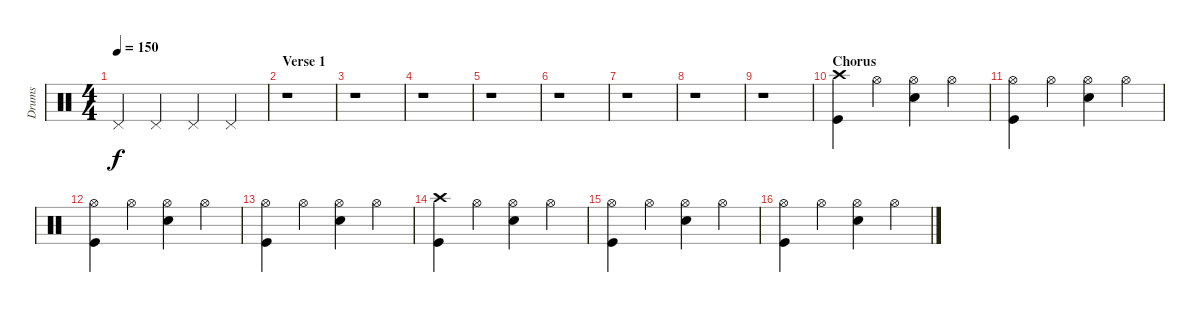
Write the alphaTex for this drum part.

\track ("Drums" "Drums") {instrument percussion}
\staff {score}
\articulation defaults
\ts (4 4)
\tempo 150
\clef neutral
\ks c "Pedal Hi-Hat (hit)".4{dy f} "Pedal Hi-Hat (hit)".4 "Pedal Hi-Hat (hit)".4 "Pedal Hi-Hat (hit)".4
|
\section ("" "Verse 1")
r.1 |
r.1 |
r.1 |
r.1 |
r.1 |
r.1 |
r.1 |
r.1 |
\section ("" "Chorus")
("Crash high (hit)" "Kick (hit)").4 "Hi-Hat (open)".4 ("Hi-Hat (open)" "Electric Snare (hit)").4 "Hi-Hat (open)".4 |
("Hi-Hat (open)" "Kick (hit)").4 "Hi-Hat (open)".4 ("Hi-Hat (open)" "Electric Snare (hit)").4 "Hi-Hat (open)".4 |
("Hi-Hat (open)" "Kick (hit)").4 "Hi-Hat (open)".4 ("Hi-Hat (open)" "Electric Snare (hit)").4 "Hi-Hat (open)".4 |
("Hi-Hat (open)" "Kick (hit)").4 "Hi-Hat (open)".4 ("Hi-Hat (open)" "Electric Snare (hit)").4 "Hi-Hat (open)".4 |
("Crash high (hit)" "Kick (hit)").4 "Hi-Hat (open)".4 ("Hi-Hat (open)" "Electric Snare (hit)").4 "Hi-Hat (open)".4 |
("Hi-Hat (open)" "Kick (hit)").4 "Hi-Hat (open)".4 ("Hi-Hat (open)" "Electric Snare (hit)").4 "Hi-Hat (open)".4 |
("Hi-Hat (open)" "Kick (hit)").4 "Hi-Hat (open)".4 ("Hi-Hat (open)" "Electric Snare (hit)").4 "Hi-Hat (open)".4
